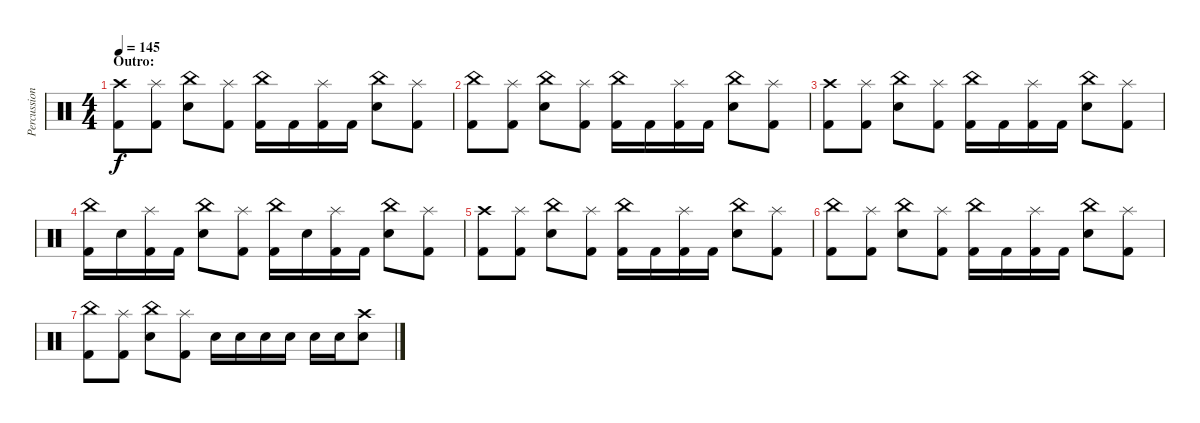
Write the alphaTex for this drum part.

\track ("Percussion" "Percussion") {instrument percussion}
\staff {score}
\articulation defaults
\ts (4 4)
\section ("" "Outro:")
\tempo 145
\clef neutral
\ks c
("Crash high (hit)" "Kick (hit) 2").8{dy f} ("Splash (hit)" "Kick (hit) 2").8 ("China (hit)" "Electric Snare (hit)").8 ("Splash (hit)" "Kick (hit) 2").8 ("China (hit)" "Kick (hit) 2").16 "Kick (hit) 2".16 ("Splash (hit)" "Kick (hit) 2").16 "Kick (hit) 2".16 ("China (hit)" "Electric Snare (hit)").8 ("Splash (hit)" "Kick (hit) 2").8 |
("China (hit)" "Kick (hit) 2").8 ("Splash (hit)" "Kick (hit) 2").8 ("China (hit)" "Electric Snare (hit)").8 ("Splash (hit)" "Kick (hit) 2").8 ("China (hit)" "Kick (hit) 2").16 "Kick (hit) 2".16 ("Splash (hit)" "Kick (hit) 2").16 "Kick (hit) 2".16 ("China (hit)" "Electric Snare (hit)").8 ("Splash (hit)" "Kick (hit) 2").8 |
("Crash high (hit)" "Kick (hit) 2").8 ("Splash (hit)" "Kick (hit) 2").8 ("China (hit)" "Electric Snare (hit)").8 ("Splash (hit)" "Kick (hit) 2").8 ("China (hit)" "Kick (hit) 2").16 "Kick (hit) 2".16 ("Splash (hit)" "Kick (hit) 2").16 "Kick (hit) 2".16 ("China (hit)" "Electric Snare (hit)").8 ("Splash (hit)" "Kick (hit) 2").8 |
("China (hit)" "Kick (hit) 2").16 "Electric Snare (hit)".16 ("Splash (hit)" "Kick (hit) 2").16 "Kick (hit) 2".16 ("China (hit)" "Electric Snare (hit)").8 ("Splash (hit)" "Kick (hit) 2").8 ("China (hit)" "Kick (hit) 2").16 "Electric Snare (hit)".16 ("Splash (hit)" "Kick (hit) 2").16 "Kick (hit) 2".16 ("China (hit)" "Electric Snare (hit)").8 ("Splash (hit)" "Kick (hit) 2").8 |
("Crash high (hit)" "Kick (hit) 2").8 ("Splash (hit)" "Kick (hit) 2").8 ("China (hit)" "Electric Snare (hit)").8 ("Splash (hit)" "Kick (hit) 2").8 ("China (hit)" "Kick (hit) 2").16 "Kick (hit) 2".16 ("Splash (hit)" "Kick (hit) 2").16 "Kick (hit) 2".16 ("China (hit)" "Electric Snare (hit)").8 ("Splash (hit)" "Kick (hit) 2").8 |
("China (hit)" "Kick (hit) 2").8 ("Splash (hit)" "Kick (hit) 2").8 ("China (hit)" "Electric Snare (hit)").8 ("Splash (hit)" "Kick (hit) 2").8 ("China (hit)" "Kick (hit) 2").16 "Kick (hit) 2".16 ("Splash (hit)" "Kick (hit) 2").16 "Kick (hit) 2".16 ("China (hit)" "Electric Snare (hit)").8 ("Splash (hit)" "Kick (hit) 2").8 |
("China (hit)" "Kick (hit) 2").8 ("Splash (hit)" "Kick (hit) 2").8 ("China (hit)" "Electric Snare (hit)").8 ("Splash (hit)" "Kick (hit) 2").8 "Electric Snare (hit)".16 "Electric Snare (hit)".16 "Electric Snare (hit)".16 "Electric Snare (hit)".16 "Electric Snare (hit)".16 "Electric Snare (hit)".16 ("Crash high (hit)" "Electric Snare (hit)").8
